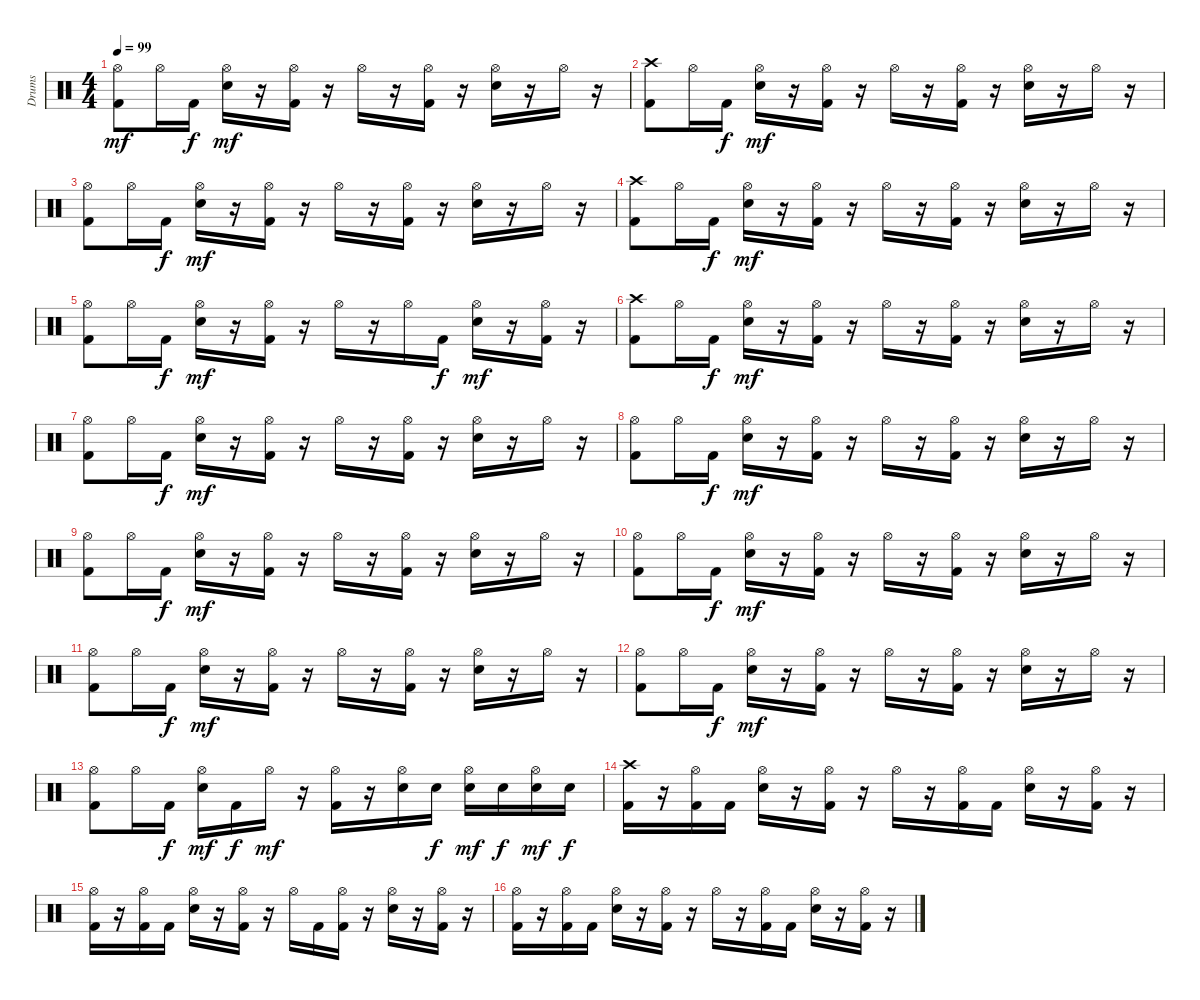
\track ("Drums" "Drums") {instrument percussion}
\staff {score}
\articulation defaults
\ts (4 4)
\tempo 99
\clef neutral
\ks c
("Hi-Hat (open)" "Kick (hit) 2").8{dy mf} "Hi-Hat (open)".16 "Kick (hit) 2".16{dy f} ("Hi-Hat (open)" "Snare (hit) 2").16{dy mf} r.16 ("Hi-Hat (open)" "Kick (hit) 2").16 r.16 "Hi-Hat (open)".16 r.16 ("Hi-Hat (open)" "Kick (hit) 2").16 r.16 ("Hi-Hat (open)" "Snare (hit) 2").16 r.16 "Hi-Hat (open)".16 r.16 |
("Crash high (hit)" "Kick (hit) 2").8 "Hi-Hat (open)".16 "Kick (hit) 2".16{dy f} ("Hi-Hat (open)" "Snare (hit) 2").16{dy mf} r.16 ("Hi-Hat (open)" "Kick (hit) 2").16 r.16 "Hi-Hat (open)".16 r.16 ("Hi-Hat (open)" "Kick (hit) 2").16 r.16 ("Hi-Hat (open)" "Snare (hit) 2").16 r.16 "Hi-Hat (open)".16 r.16 |
("Hi-Hat (open)" "Kick (hit) 2").8 "Hi-Hat (open)".16 "Kick (hit) 2".16{dy f} ("Hi-Hat (open)" "Snare (hit) 2").16{dy mf} r.16 ("Hi-Hat (open)" "Kick (hit) 2").16 r.16 "Hi-Hat (open)".16 r.16 ("Hi-Hat (open)" "Kick (hit) 2").16 r.16 ("Hi-Hat (open)" "Snare (hit) 2").16 r.16 "Hi-Hat (open)".16 r.16 |
("Crash high (hit)" "Kick (hit) 2").8 "Hi-Hat (open)".16 "Kick (hit) 2".16{dy f} ("Hi-Hat (open)" "Snare (hit) 2").16{dy mf} r.16 ("Hi-Hat (open)" "Kick (hit) 2").16 r.16 "Hi-Hat (open)".16 r.16 ("Hi-Hat (open)" "Kick (hit) 2").16 r.16 ("Hi-Hat (open)" "Snare (hit) 2").16 r.16 "Hi-Hat (open)".16 r.16 |
("Hi-Hat (open)" "Kick (hit) 2").8 "Hi-Hat (open)".16 "Kick (hit) 2".16{dy f} ("Hi-Hat (open)" "Snare (hit) 2").16{dy mf} r.16 ("Hi-Hat (open)" "Kick (hit) 2").16 r.16 "Hi-Hat (open)".16 r.16 "Hi-Hat (open)".16 "Kick (hit) 2".16{dy f} ("Hi-Hat (open)" "Snare (hit) 2").16{dy mf} r.16 ("Hi-Hat (open)" "Kick (hit) 2").16 r.16 |
("Crash high (hit)" "Kick (hit) 2").8 "Hi-Hat (open)".16 "Kick (hit) 2".16{dy f} ("Hi-Hat (open)" "Snare (hit) 2").16{dy mf} r.16 ("Hi-Hat (open)" "Kick (hit) 2").16 r.16 "Hi-Hat (open)".16 r.16 ("Hi-Hat (open)" "Kick (hit) 2").16 r.16 ("Hi-Hat (open)" "Snare (hit) 2").16 r.16 "Hi-Hat (open)".16 r.16 |
("Hi-Hat (open)" "Kick (hit) 2").8 "Hi-Hat (open)".16 "Kick (hit) 2".16{dy f} ("Hi-Hat (open)" "Snare (hit) 2").16{dy mf} r.16 ("Hi-Hat (open)" "Kick (hit) 2").16 r.16 "Hi-Hat (open)".16 r.16 ("Hi-Hat (open)" "Kick (hit) 2").16 r.16 ("Hi-Hat (open)" "Snare (hit) 2").16 r.16 "Hi-Hat (open)".16 r.16 |
("Hi-Hat (open)" "Kick (hit) 2").8 "Hi-Hat (open)".16 "Kick (hit) 2".16{dy f} ("Hi-Hat (open)" "Snare (hit) 2").16{dy mf} r.16 ("Hi-Hat (open)" "Kick (hit) 2").16 r.16 "Hi-Hat (open)".16 r.16 ("Hi-Hat (open)" "Kick (hit) 2").16 r.16 ("Hi-Hat (open)" "Snare (hit) 2").16 r.16 "Hi-Hat (open)".16 r.16 |
("Hi-Hat (open)" "Kick (hit) 2").8 "Hi-Hat (open)".16 "Kick (hit) 2".16{dy f} ("Hi-Hat (open)" "Snare (hit) 2").16{dy mf} r.16 ("Hi-Hat (open)" "Kick (hit) 2").16 r.16 "Hi-Hat (open)".16 r.16 ("Hi-Hat (open)" "Kick (hit) 2").16 r.16 ("Hi-Hat (open)" "Snare (hit) 2").16 r.16 "Hi-Hat (open)".16 r.16 |
("Hi-Hat (open)" "Kick (hit) 2").8 "Hi-Hat (open)".16 "Kick (hit) 2".16{dy f} ("Hi-Hat (open)" "Snare (hit) 2").16{dy mf} r.16 ("Hi-Hat (open)" "Kick (hit) 2").16 r.16 "Hi-Hat (open)".16 r.16 ("Hi-Hat (open)" "Kick (hit) 2").16 r.16 ("Hi-Hat (open)" "Snare (hit) 2").16 r.16 "Hi-Hat (open)".16 r.16 |
("Hi-Hat (open)" "Kick (hit) 2").8 "Hi-Hat (open)".16 "Kick (hit) 2".16{dy f} ("Hi-Hat (open)" "Snare (hit) 2").16{dy mf} r.16 ("Hi-Hat (open)" "Kick (hit) 2").16 r.16 "Hi-Hat (open)".16 r.16 ("Hi-Hat (open)" "Kick (hit) 2").16 r.16 ("Hi-Hat (open)" "Snare (hit) 2").16 r.16 "Hi-Hat (open)".16 r.16 |
("Hi-Hat (open)" "Kick (hit) 2").8 "Hi-Hat (open)".16 "Kick (hit) 2".16{dy f} ("Hi-Hat (open)" "Snare (hit) 2").16{dy mf} r.16 ("Hi-Hat (open)" "Kick (hit) 2").16 r.16 "Hi-Hat (open)".16 r.16 ("Hi-Hat (open)" "Kick (hit) 2").16 r.16 ("Hi-Hat (open)" "Snare (hit) 2").16 r.16 "Hi-Hat (open)".16 r.16 |
("Hi-Hat (open)" "Kick (hit) 2").8 "Hi-Hat (open)".16 "Kick (hit) 2".16{dy f} ("Hi-Hat (open)" "Snare (hit) 2").16{dy mf} "Kick (hit) 2".16{dy f} "Hi-Hat (open)".16{dy mf} r.16 ("Hi-Hat (open)" "Kick (hit) 2").16 r.16 ("Hi-Hat (open)" "Snare (hit) 2").16 "Electric Snare (hit)".16{dy f} ("Hi-Hat (open)" "Snare (hit) 2").16{dy mf} "Snare (hit) 2".16{dy f} ("Hi-Hat (open)" "Snare (hit) 2").16{dy mf} "Snare (hit) 2".16{dy f} |
("Crash high (hit)" "Kick (hit) 2").16 r.16 ("Hi-Hat (open)" "Kick (hit) 2").16 "Kick (hit) 2".16 ("Hi-Hat (open)" "Electric Snare (hit)").16 r.16 ("Hi-Hat (open)" "Kick (hit) 2").16 r.16 "Hi-Hat (open)".16 r.16 ("Hi-Hat (open)" "Kick (hit) 2").16 "Kick (hit) 2".16 ("Hi-Hat (open)" "Electric Snare (hit)").16 r.16 ("Hi-Hat (open)" "Kick (hit) 2").16 r.16 |
("Hi-Hat (open)" "Kick (hit) 2").16 r.16 ("Hi-Hat (open)" "Kick (hit) 2").16 "Kick (hit) 2".16 ("Hi-Hat (open)" "Electric Snare (hit)").16 r.16 ("Hi-Hat (open)" "Kick (hit) 2").16 r.16 "Hi-Hat (open)".16 "Kick (hit) 2".16 ("Hi-Hat (open)" "Kick (hit) 2").16 r.16 ("Hi-Hat (open)" "Electric Snare (hit)").16 r.16 ("Hi-Hat (open)" "Kick (hit) 2").16 r.16 |
("Hi-Hat (open)" "Kick (hit) 2").16 r.16 ("Hi-Hat (open)" "Kick (hit) 2").16 "Kick (hit) 2".16 ("Hi-Hat (open)" "Electric Snare (hit)").16 r.16 ("Hi-Hat (open)" "Kick (hit) 2").16 r.16 "Hi-Hat (open)".16 r.16 ("Hi-Hat (open)" "Kick (hit) 2").16 "Kick (hit) 2".16 ("Hi-Hat (open)" "Electric Snare (hit)").16 r.16 ("Hi-Hat (open)" "Kick (hit) 2").16 r.16
